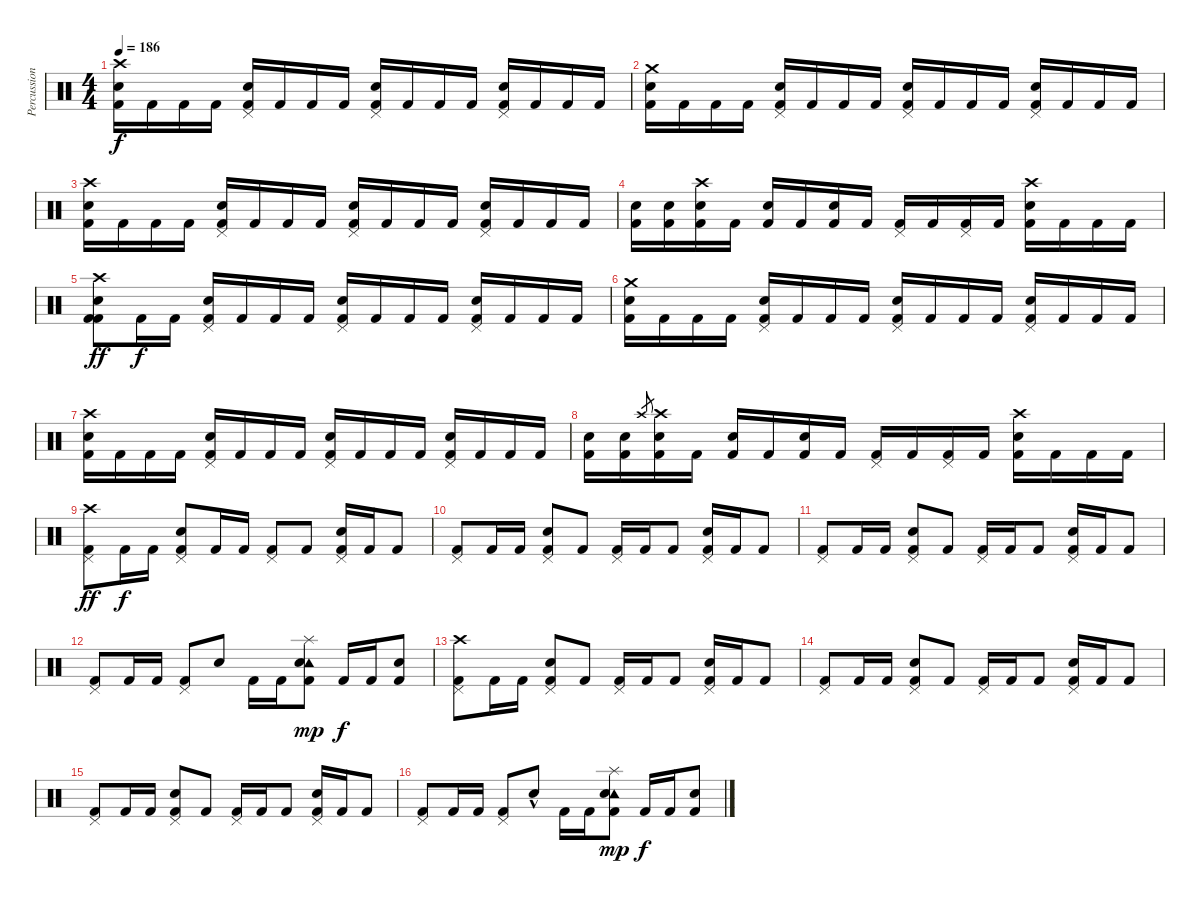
\track ("Percussion" "Percussion") {instrument percussion}
\staff {score}
\articulation defaults
\ts (4 4)
\tempo 186
\clef neutral
\ks c
("Crash high (hit)" "Electric Snare (hit)" "Kick (hit) 2").16{dy f} "Kick (hit) 2".16 "Kick (hit) 2".16 "Kick (hit) 2".16 ("Pedal Hi-Hat (hit)" "Electric Snare (hit)" "Kick (hit) 2").16 "Kick (hit) 2".16 "Kick (hit) 2".16 "Kick (hit) 2".16 ("Pedal Hi-Hat (hit)" "Electric Snare (hit)" "Kick (hit) 2").16 "Kick (hit) 2".16 "Kick (hit) 2".16 "Kick (hit) 2".16 ("Pedal Hi-Hat (hit)" "Electric Snare (hit)" "Kick (hit) 2").16 "Kick (hit) 2".16 "Kick (hit) 2".16 "Kick (hit) 2".16 |
("Crash medium (hit)" "Electric Snare (hit)" "Kick (hit) 2").16 "Kick (hit) 2".16 "Kick (hit) 2".16 "Kick (hit) 2".16 ("Pedal Hi-Hat (hit)" "Electric Snare (hit)" "Kick (hit) 2").16 "Kick (hit) 2".16 "Kick (hit) 2".16 "Kick (hit) 2".16 ("Pedal Hi-Hat (hit)" "Electric Snare (hit)" "Kick (hit) 2").16 "Kick (hit) 2".16 "Kick (hit) 2".16 "Kick (hit) 2".16 ("Pedal Hi-Hat (hit)" "Electric Snare (hit)" "Kick (hit) 2").16 "Kick (hit) 2".16 "Kick (hit) 2".16 "Kick (hit) 2".16 |
("Crash high (hit)" "Electric Snare (hit)" "Kick (hit) 2").16 "Kick (hit) 2".16 "Kick (hit) 2".16 "Kick (hit) 2".16 ("Pedal Hi-Hat (hit)" "Electric Snare (hit)" "Kick (hit) 2").16 "Kick (hit) 2".16 "Kick (hit) 2".16 "Kick (hit) 2".16 ("Pedal Hi-Hat (hit)" "Electric Snare (hit)" "Kick (hit) 2").16 "Kick (hit) 2".16 "Kick (hit) 2".16 "Kick (hit) 2".16 ("Pedal Hi-Hat (hit)" "Electric Snare (hit)" "Kick (hit) 2").16 "Kick (hit) 2".16 "Kick (hit) 2".16 "Kick (hit) 2".16 |
("Electric Snare (hit)" "Kick (hit) 2").16 ("Electric Snare (hit)" "Kick (hit) 2").16 ("Crash high (hit)" "Electric Snare (hit)" "Kick (hit) 2").16 "Kick (hit) 2".16 ("Electric Snare (hit)" "Kick (hit) 2").16 "Kick (hit) 2".16 ("Electric Snare (hit)" "Kick (hit) 2").16 "Kick (hit) 2".16 ("Pedal Hi-Hat (hit)" "Kick (hit) 2").16 "Kick (hit) 2".16 ("Pedal Hi-Hat (hit)" "Kick (hit) 2").16 "Kick (hit) 2".16 ("Crash high (hit)" "Electric Snare (hit)" "Kick (hit) 2").16 "Kick (hit) 2".16 "Kick (hit) 2".16 "Kick (hit) 2".16 |
("Crash high (hit)" "Electric Snare (hit)" "Kick (hit) 2" "Kick (hit) 2").8{dy ff} "Kick (hit) 2".16{dy f} "Kick (hit) 2".16 ("Pedal Hi-Hat (hit)" "Electric Snare (hit)" "Kick (hit) 2").16 "Kick (hit) 2".16 "Kick (hit) 2".16 "Kick (hit) 2".16 ("Pedal Hi-Hat (hit)" "Electric Snare (hit)" "Kick (hit) 2").16 "Kick (hit) 2".16 "Kick (hit) 2".16 "Kick (hit) 2".16 ("Pedal Hi-Hat (hit)" "Electric Snare (hit)" "Kick (hit) 2").16 "Kick (hit) 2".16 "Kick (hit) 2".16 "Kick (hit) 2".16 |
("Crash medium (hit)" "Electric Snare (hit)" "Kick (hit) 2").16 "Kick (hit) 2".16 "Kick (hit) 2".16 "Kick (hit) 2".16 ("Pedal Hi-Hat (hit)" "Electric Snare (hit)" "Kick (hit) 2").16 "Kick (hit) 2".16 "Kick (hit) 2".16 "Kick (hit) 2".16 ("Pedal Hi-Hat (hit)" "Electric Snare (hit)" "Kick (hit) 2").16 "Kick (hit) 2".16 "Kick (hit) 2".16 "Kick (hit) 2".16 ("Pedal Hi-Hat (hit)" "Electric Snare (hit)" "Kick (hit) 2").16 "Kick (hit) 2".16 "Kick (hit) 2".16 "Kick (hit) 2".16 |
("Crash high (hit)" "Electric Snare (hit)" "Kick (hit) 2").16 "Kick (hit) 2".16 "Kick (hit) 2".16 "Kick (hit) 2".16 ("Pedal Hi-Hat (hit)" "Electric Snare (hit)" "Kick (hit) 2").16 "Kick (hit) 2".16 "Kick (hit) 2".16 "Kick (hit) 2".16 ("Pedal Hi-Hat (hit)" "Electric Snare (hit)" "Kick (hit) 2").16 "Kick (hit) 2".16 "Kick (hit) 2".16 "Kick (hit) 2".16 ("Pedal Hi-Hat (hit)" "Electric Snare (hit)" "Kick (hit) 2").16 "Kick (hit) 2".16 "Kick (hit) 2".16 "Kick (hit) 2".16 |
("Electric Snare (hit)" "Kick (hit) 2").16 ("Electric Snare (hit)" "Kick (hit) 2").16 "Crash high (hit)".8{gr} ("Crash high (hit)" "Electric Snare (hit)" "Kick (hit) 2").16 "Kick (hit) 2".16 ("Electric Snare (hit)" "Kick (hit) 2").16 "Kick (hit) 2".16 ("Electric Snare (hit)" "Kick (hit) 2").16 "Kick (hit) 2".16 ("Pedal Hi-Hat (hit)" "Kick (hit) 2").16 "Kick (hit) 2".16 ("Pedal Hi-Hat (hit)" "Kick (hit) 2").16 "Kick (hit) 2".16 ("Crash high (hit)" "Electric Snare (hit)" "Kick (hit) 2").16 "Kick (hit) 2".16 "Kick (hit) 2".16 "Kick (hit) 2".16 |
("Crash high (hit)" "Pedal Hi-Hat (hit)" "Kick (hit) 2").8{dy ff} "Kick (hit) 2".16{dy f} "Kick (hit) 2".16 ("Electric Snare (hit)" "Pedal Hi-Hat (hit)" "Kick (hit) 2").8 "Kick (hit) 2".16 "Kick (hit) 2".16 ("Pedal Hi-Hat (hit)" "Kick (hit) 2").8 "Kick (hit) 2".8 ("Electric Snare (hit)" "Pedal Hi-Hat (hit)" "Kick (hit) 2").16 "Kick (hit) 2".16 "Kick (hit) 2".8 |
("Pedal Hi-Hat (hit)" "Kick (hit) 2").8 "Kick (hit) 2".16 "Kick (hit) 2".16 ("Electric Snare (hit)" "Pedal Hi-Hat (hit)" "Kick (hit) 2").8 "Kick (hit) 2".8 ("Pedal Hi-Hat (hit)" "Kick (hit) 2").16 "Kick (hit) 2".16 "Kick (hit) 2".8 ("Electric Snare (hit)" "Pedal Hi-Hat (hit)" "Kick (hit) 2").16 "Kick (hit) 2".16 "Kick (hit) 2".8 |
("Pedal Hi-Hat (hit)" "Kick (hit) 2").8 "Kick (hit) 2".16 "Kick (hit) 2".16 ("Electric Snare (hit)" "Pedal Hi-Hat (hit)" "Kick (hit) 2").8 "Kick (hit) 2".8 ("Pedal Hi-Hat (hit)" "Kick (hit) 2").16 "Kick (hit) 2".16 "Kick (hit) 2".8 ("Electric Snare (hit)" "Pedal Hi-Hat (hit)" "Kick (hit) 2").16 "Kick (hit) 2".16 "Kick (hit) 2".8 |
("Pedal Hi-Hat (hit)" "Kick (hit) 2").8 "Kick (hit) 2".16 "Kick (hit) 2".16 ("Pedal Hi-Hat (hit)" "Kick (hit) 2").8 "Electric Snare (hit)".8 "Kick (hit) 2".16 "Kick (hit) 2".16 ("Tambourine (hit)" "Splash (hit)" "Electric Snare (hit)" "Kick (hit) 2").8{dy mp} "Kick (hit) 2".16{dy f} "Kick (hit) 2".16 ("Electric Snare (hit)" "Kick (hit) 2").8 |
("Crash high (hit)" "Pedal Hi-Hat (hit)" "Kick (hit) 2").8 "Kick (hit) 2".16 "Kick (hit) 2".16 ("Electric Snare (hit)" "Pedal Hi-Hat (hit)" "Kick (hit) 2").8 "Kick (hit) 2".8 ("Pedal Hi-Hat (hit)" "Kick (hit) 2").16 "Kick (hit) 2".16 "Kick (hit) 2".8 ("Electric Snare (hit)" "Pedal Hi-Hat (hit)" "Kick (hit) 2").16 "Kick (hit) 2".16 "Kick (hit) 2".8 |
("Pedal Hi-Hat (hit)" "Kick (hit) 2").8 "Kick (hit) 2".16 "Kick (hit) 2".16 ("Electric Snare (hit)" "Pedal Hi-Hat (hit)" "Kick (hit) 2").8 "Kick (hit) 2".8 ("Pedal Hi-Hat (hit)" "Kick (hit) 2").16 "Kick (hit) 2".16 "Kick (hit) 2".8 ("Electric Snare (hit)" "Pedal Hi-Hat (hit)" "Kick (hit) 2").16 "Kick (hit) 2".16 "Kick (hit) 2".8 |
("Pedal Hi-Hat (hit)" "Kick (hit) 2").8 "Kick (hit) 2".16 "Kick (hit) 2".16 ("Electric Snare (hit)" "Pedal Hi-Hat (hit)" "Kick (hit) 2").8 "Kick (hit) 2".8 ("Pedal Hi-Hat (hit)" "Kick (hit) 2").16 "Kick (hit) 2".16 "Kick (hit) 2".8 ("Electric Snare (hit)" "Pedal Hi-Hat (hit)" "Kick (hit) 2").16 "Kick (hit) 2".16 "Kick (hit) 2".8 |
("Pedal Hi-Hat (hit)" "Kick (hit) 2").8 "Kick (hit) 2".16 "Kick (hit) 2".16 ("Pedal Hi-Hat (hit)" "Kick (hit) 2").8 "Electric Snare (hit)"{hac}.8 "Kick (hit) 2".16 "Kick (hit) 2".16 ("Tambourine (hit)" "Splash (hit)" "Electric Snare (hit)" "Kick (hit) 2").8{dy mp} "Kick (hit) 2".16{dy f} "Kick (hit) 2".16 ("Electric Snare (hit)" "Kick (hit) 2").8
